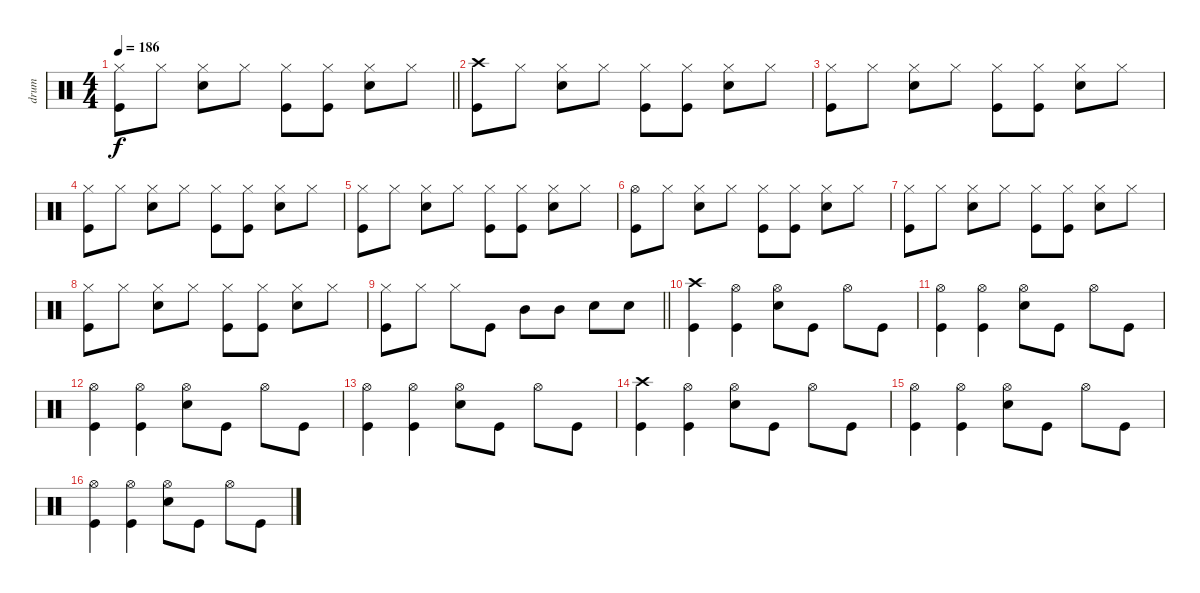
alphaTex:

\track ("drum" "drum") {instrument percussion}
\staff {score}
\articulation defaults
\ts (4 4)
\tempo 186
\clef neutral
\barLineRight lightlight
\ks c
("Hi-Hat (closed)" "Kick (hit)").8{dy f} "Hi-Hat (closed)".8 ("Hi-Hat (closed)" "Snare (hit) 2").8 "Hi-Hat (closed)".8 ("Hi-Hat (closed)" "Kick (hit)").8 ("Hi-Hat (closed)" "Kick (hit)").8 ("Hi-Hat (closed)" "Snare (hit) 2").8 "Hi-Hat (closed)".8 |
("Crash high (hit)" "Kick (hit)").8 "Hi-Hat (closed)".8 ("Hi-Hat (closed)" "Snare (hit) 2").8 "Hi-Hat (closed)".8 ("Hi-Hat (closed)" "Kick (hit)").8 ("Hi-Hat (closed)" "Kick (hit)").8 ("Hi-Hat (closed)" "Snare (hit) 2").8 "Hi-Hat (closed)".8 |
("Hi-Hat (closed)" "Kick (hit)").8 "Hi-Hat (closed)".8 ("Hi-Hat (closed)" "Snare (hit) 2").8 "Hi-Hat (closed)".8 ("Hi-Hat (closed)" "Kick (hit)").8 ("Hi-Hat (closed)" "Kick (hit)").8 ("Hi-Hat (closed)" "Snare (hit) 2").8 "Hi-Hat (closed)".8 |
("Hi-Hat (closed)" "Kick (hit)").8 "Hi-Hat (closed)".8 ("Hi-Hat (closed)" "Snare (hit) 2").8 "Hi-Hat (closed)".8 ("Hi-Hat (closed)" "Kick (hit)").8 ("Hi-Hat (closed)" "Kick (hit)").8 ("Hi-Hat (closed)" "Snare (hit) 2").8 "Hi-Hat (closed)".8 |
("Hi-Hat (closed)" "Kick (hit)").8 "Hi-Hat (closed)".8 ("Hi-Hat (closed)" "Snare (hit) 2").8 "Hi-Hat (closed)".8 ("Hi-Hat (closed)" "Kick (hit)").8 ("Hi-Hat (closed)" "Kick (hit)").8 ("Hi-Hat (closed)" "Snare (hit) 2").8 "Hi-Hat (closed)".8 |
("Hi-Hat (open)" "Kick (hit)").8 "Hi-Hat (closed)".8 ("Hi-Hat (closed)" "Snare (hit) 2").8 "Hi-Hat (closed)".8 ("Hi-Hat (closed)" "Kick (hit)").8 ("Hi-Hat (closed)" "Kick (hit)").8 ("Hi-Hat (closed)" "Snare (hit) 2").8 "Hi-Hat (closed)".8 |
("Hi-Hat (closed)" "Kick (hit)").8 "Hi-Hat (closed)".8 ("Hi-Hat (closed)" "Snare (hit) 2").8 "Hi-Hat (closed)".8 ("Hi-Hat (closed)" "Kick (hit)").8 ("Hi-Hat (closed)" "Kick (hit)").8 ("Hi-Hat (closed)" "Snare (hit) 2").8 "Hi-Hat (closed)".8 |
("Hi-Hat (closed)" "Kick (hit)").8 "Hi-Hat (closed)".8 ("Hi-Hat (closed)" "Snare (hit) 2").8 "Hi-Hat (closed)".8 ("Hi-Hat (closed)" "Kick (hit)").8 ("Hi-Hat (closed)" "Kick (hit)").8 ("Hi-Hat (closed)" "Snare (hit) 2").8 "Hi-Hat (closed)".8 |
\barLineRight lightlight
("Hi-Hat (closed)" "Kick (hit)").8 "Hi-Hat (closed)".8 "Hi-Hat (closed)".8 "Kick (hit)".8 "Mid Tom (hit)".8 "Mid Tom (hit)".8 "Snare (hit) 2".8 "Snare (hit) 2".8 |
("Crash high (hit)" "Kick (hit)").4 ("Hi-Hat (open)" "Kick (hit)").4 ("Hi-Hat (open)" "Snare (hit) 2").8 "Kick (hit)".8 "Hi-Hat (open)".8 "Kick (hit)".8 |
("Hi-Hat (open)" "Kick (hit)").4 ("Hi-Hat (open)" "Kick (hit)").4 ("Hi-Hat (open)" "Snare (hit) 2").8 "Kick (hit)".8 "Hi-Hat (open)".8 "Kick (hit)".8 |
("Hi-Hat (open)" "Kick (hit)").4 ("Hi-Hat (open)" "Kick (hit)").4 ("Hi-Hat (open)" "Snare (hit) 2").8 "Kick (hit)".8 "Hi-Hat (open)".8 "Kick (hit)".8 |
("Hi-Hat (open)" "Kick (hit)").4 ("Hi-Hat (open)" "Kick (hit)").4 ("Hi-Hat (open)" "Snare (hit) 2").8 "Kick (hit)".8 "Hi-Hat (open)".8 "Kick (hit)".8 |
("Crash high (hit)" "Kick (hit)").4 ("Hi-Hat (open)" "Kick (hit)").4 ("Hi-Hat (open)" "Snare (hit) 2").8 "Kick (hit)".8 "Hi-Hat (open)".8 "Kick (hit)".8 |
("Hi-Hat (open)" "Kick (hit)").4 ("Hi-Hat (open)" "Kick (hit)").4 ("Hi-Hat (open)" "Snare (hit) 2").8 "Kick (hit)".8 "Hi-Hat (open)".8 "Kick (hit)".8 |
("Hi-Hat (open)" "Kick (hit)").4 ("Hi-Hat (open)" "Kick (hit)").4 ("Hi-Hat (open)" "Snare (hit) 2").8 "Kick (hit)".8 "Hi-Hat (open)".8 "Kick (hit)".8
